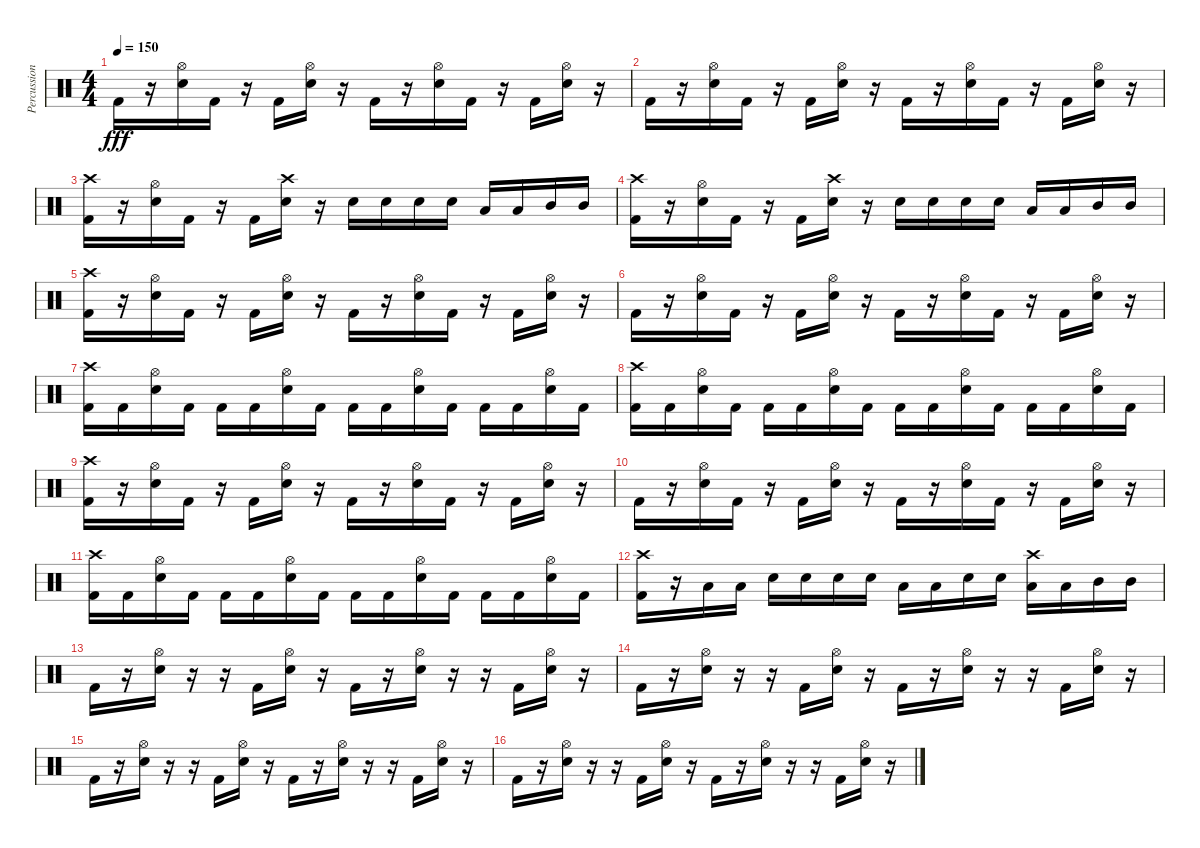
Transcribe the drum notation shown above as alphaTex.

\track ("Percussion" "Percussion") {instrument percussion}
\staff {score}
\articulation defaults
\ts (4 4)
\tempo 150
\clef neutral
\ks c "Kick (hit) 2".16{dy fff}
r.16 ("Snare (hit) 2" "Hi-Hat (open)").16 "Kick (hit) 2".16 r.16 "Kick (hit) 2".16 ("Snare (hit) 2" "Hi-Hat (open)").16 r.16 "Kick (hit) 2".16 r.16 ("Snare (hit) 2" "Hi-Hat (open)").16 "Kick (hit) 2".16 r.16 "Kick (hit) 2".16 ("Snare (hit) 2" "Hi-Hat (open)").16 r.16 |
"Kick (hit) 2".16 r.16 ("Snare (hit) 2" "Hi-Hat (open)").16 "Kick (hit) 2".16 r.16 "Kick (hit) 2".16 ("Snare (hit) 2" "Hi-Hat (open)").16 r.16 "Kick (hit) 2".16 r.16 ("Snare (hit) 2" "Hi-Hat (open)").16 "Kick (hit) 2".16 r.16 "Kick (hit) 2".16 ("Snare (hit) 2" "Hi-Hat (open)").16 r.16 |
("Kick (hit) 2" "Crash high (hit)").16 r.16 ("Snare (hit) 2" "Hi-Hat (open)").16 "Kick (hit) 2".16 r.16 "Kick (hit) 2".16 ("Snare (hit) 2" "Crash high (hit)").16 r.16 "Snare (hit) 2".16 "Snare (hit) 2".16 "Snare (hit) 2".16 "Snare (hit) 2".16 "Low Tom (hit)".16 "Low Tom (hit)".16 "Mid Tom (hit)".16 "Mid Tom (hit)".16 |
("Kick (hit) 2" "Crash high (hit)").16 r.16 ("Snare (hit) 2" "Hi-Hat (open)").16 "Kick (hit) 2".16 r.16 "Kick (hit) 2".16 ("Snare (hit) 2" "Crash high (hit)").16 r.16 "Snare (hit) 2".16 "Snare (hit) 2".16 "Snare (hit) 2".16 "Snare (hit) 2".16 "Low Tom (hit)".16 "Low Tom (hit)".16 "Mid Tom (hit)".16 "Mid Tom (hit)".16 |
("Kick (hit) 2" "Crash high (hit)").16 r.16 ("Snare (hit) 2" "Hi-Hat (open)").16 "Kick (hit) 2".16 r.16 "Kick (hit) 2".16 ("Snare (hit) 2" "Hi-Hat (open)").16 r.16 "Kick (hit) 2".16 r.16 ("Snare (hit) 2" "Hi-Hat (open)").16 "Kick (hit) 2".16 r.16 "Kick (hit) 2".16 ("Snare (hit) 2" "Hi-Hat (open)").16 r.16 |
"Kick (hit) 2".16 r.16 ("Snare (hit) 2" "Hi-Hat (open)").16 "Kick (hit) 2".16 r.16 "Kick (hit) 2".16 ("Snare (hit) 2" "Hi-Hat (open)").16 r.16 "Kick (hit) 2".16 r.16 ("Snare (hit) 2" "Hi-Hat (open)").16 "Kick (hit) 2".16 r.16 "Kick (hit) 2".16 ("Snare (hit) 2" "Hi-Hat (open)").16 r.16 |
("Kick (hit) 2" "Crash high (hit)").16 "Kick (hit) 2".16 ("Snare (hit) 2" "Hi-Hat (open)").16 "Kick (hit) 2".16 "Kick (hit) 2".16 "Kick (hit) 2".16 ("Snare (hit) 2" "Hi-Hat (open)").16 "Kick (hit) 2".16 "Kick (hit) 2".16 "Kick (hit) 2".16 ("Snare (hit) 2" "Hi-Hat (open)").16 "Kick (hit) 2".16 "Kick (hit) 2".16 "Kick (hit) 2".16 ("Snare (hit) 2" "Hi-Hat (open)").16 "Kick (hit) 2".16 |
("Kick (hit) 2" "Crash high (hit)").16 "Kick (hit) 2".16 ("Snare (hit) 2" "Hi-Hat (open)").16 "Kick (hit) 2".16 "Kick (hit) 2".16 "Kick (hit) 2".16 ("Snare (hit) 2" "Hi-Hat (open)").16 "Kick (hit) 2".16 "Kick (hit) 2".16 "Kick (hit) 2".16 ("Snare (hit) 2" "Hi-Hat (open)").16 "Kick (hit) 2".16 "Kick (hit) 2".16 "Kick (hit) 2".16 ("Snare (hit) 2" "Hi-Hat (open)").16 "Kick (hit) 2".16 |
("Kick (hit) 2" "Crash high (hit)").16 r.16 ("Snare (hit) 2" "Hi-Hat (open)").16 "Kick (hit) 2".16 r.16 "Kick (hit) 2".16 ("Snare (hit) 2" "Hi-Hat (open)").16 r.16 "Kick (hit) 2".16 r.16 ("Snare (hit) 2" "Hi-Hat (open)").16 "Kick (hit) 2".16 r.16 "Kick (hit) 2".16 ("Snare (hit) 2" "Hi-Hat (open)").16 r.16 |
"Kick (hit) 2".16 r.16 ("Snare (hit) 2" "Hi-Hat (open)").16 "Kick (hit) 2".16 r.16 "Kick (hit) 2".16 ("Snare (hit) 2" "Hi-Hat (open)").16 r.16 "Kick (hit) 2".16 r.16 ("Snare (hit) 2" "Hi-Hat (open)").16 "Kick (hit) 2".16 r.16 "Kick (hit) 2".16 ("Snare (hit) 2" "Hi-Hat (open)").16 r.16 |
("Kick (hit) 2" "Crash high (hit)").16 "Kick (hit) 2".16 ("Snare (hit) 2" "Hi-Hat (open)").16 "Kick (hit) 2".16 "Kick (hit) 2".16 "Kick (hit) 2".16 ("Snare (hit) 2" "Hi-Hat (open)").16 "Kick (hit) 2".16 "Kick (hit) 2".16 "Kick (hit) 2".16 ("Snare (hit) 2" "Hi-Hat (open)").16 "Kick (hit) 2".16 "Kick (hit) 2".16 "Kick (hit) 2".16 ("Snare (hit) 2" "Hi-Hat (open)").16 "Kick (hit) 2".16 |
("Kick (hit) 2" "Crash high (hit)").16 r.16 "Low Tom (hit)".16 "Low Tom (hit)".16 "Snare (hit) 2".16 "Snare (hit) 2".16 "Snare (hit) 2".16 "Snare (hit) 2".16 "Low Tom (hit)".16 "Low Tom (hit)".16 "Snare (hit) 2".16 "Snare (hit) 2".16 ("Low Tom (hit)" "Crash high (hit)").16 "Low Tom (hit)".16 "Mid Tom (hit)".16 "Mid Tom (hit)".16 |
"Kick (hit) 2".16 r.16 ("Snare (hit) 2" "Hi-Hat (open)").16 r.16 r.16 "Kick (hit) 2".16 ("Snare (hit) 2" "Hi-Hat (open)").16 r.16 "Kick (hit) 2".16 r.16 ("Snare (hit) 2" "Hi-Hat (open)").16 r.16 r.16 "Kick (hit) 2".16 ("Snare (hit) 2" "Hi-Hat (open)").16 r.16 |
"Kick (hit) 2".16 r.16 ("Snare (hit) 2" "Hi-Hat (open)").16 r.16 r.16 "Kick (hit) 2".16 ("Snare (hit) 2" "Hi-Hat (open)").16 r.16 "Kick (hit) 2".16 r.16 ("Snare (hit) 2" "Hi-Hat (open)").16 r.16 r.16 "Kick (hit) 2".16 ("Snare (hit) 2" "Hi-Hat (open)").16 r.16 |
"Kick (hit) 2".16 r.16 ("Snare (hit) 2" "Hi-Hat (open)").16 r.16 r.16 "Kick (hit) 2".16 ("Snare (hit) 2" "Hi-Hat (open)").16 r.16 "Kick (hit) 2".16 r.16 ("Snare (hit) 2" "Hi-Hat (open)").16 r.16 r.16 "Kick (hit) 2".16 ("Snare (hit) 2" "Hi-Hat (open)").16 r.16 |
"Kick (hit) 2".16 r.16 ("Snare (hit) 2" "Hi-Hat (open)").16 r.16 r.16 "Kick (hit) 2".16 ("Snare (hit) 2" "Hi-Hat (open)").16 r.16 "Kick (hit) 2".16 r.16 ("Snare (hit) 2" "Hi-Hat (open)").16 r.16 r.16 "Kick (hit) 2".16 ("Snare (hit) 2" "Hi-Hat (open)").16 r.16
